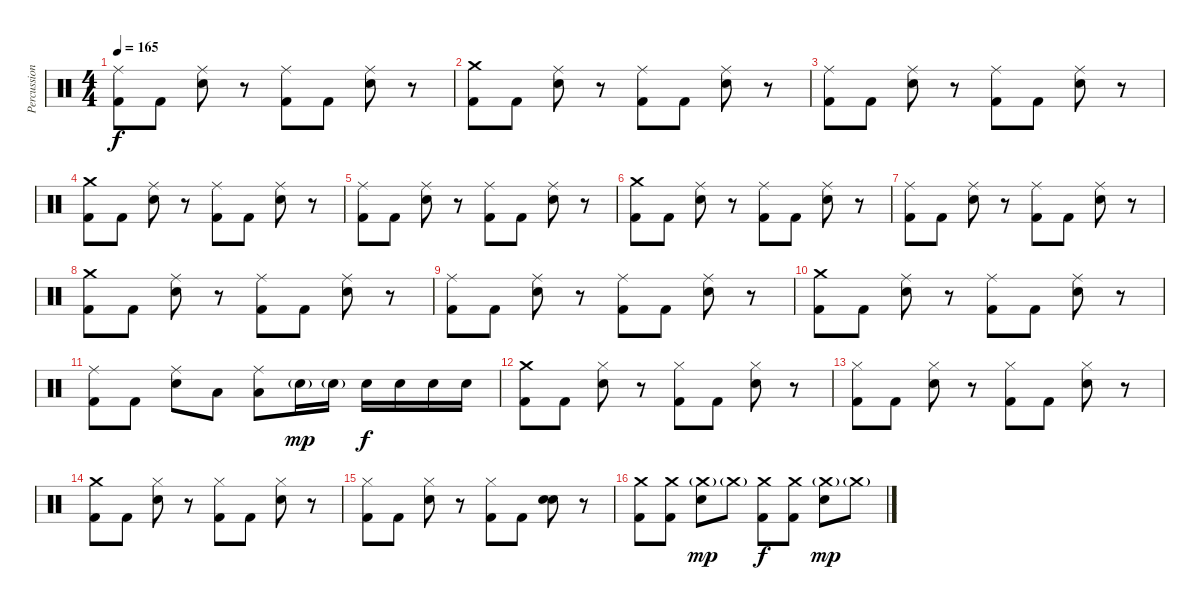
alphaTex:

\track ("Percussion" "Percussion") {instrument percussion}
\staff {score}
\articulation defaults
\ts (4 4)
\tempo 165
\clef neutral
\ks c
("Ride (middle)" "Kick (hit) 2").8{dy f} "Kick (hit) 2".8 ("Ride (middle)" "Electric Snare (hit)").8 r.8 ("Ride (middle)" "Kick (hit) 2").8 "Kick (hit) 2".8 ("Ride (middle)" "Electric Snare (hit)").8 r.8 |
("Crash medium (hit)" "Kick (hit) 2").8 "Kick (hit) 2".8 ("Ride (middle)" "Electric Snare (hit)").8 r.8 ("Ride (middle)" "Kick (hit) 2").8 "Kick (hit) 2".8 ("Ride (middle)" "Electric Snare (hit)").8 r.8 |
("Ride (middle)" "Kick (hit) 2").8 "Kick (hit) 2".8 ("Ride (middle)" "Electric Snare (hit)").8 r.8 ("Ride (middle)" "Kick (hit) 2").8 "Kick (hit) 2".8 ("Ride (middle)" "Electric Snare (hit)").8 r.8 |
("Crash medium (hit)" "Kick (hit) 2").8 "Kick (hit) 2".8 ("Ride (middle)" "Electric Snare (hit)").8 r.8 ("Ride (middle)" "Kick (hit) 2").8 "Kick (hit) 2".8 ("Ride (middle)" "Electric Snare (hit)").8 r.8 |
("Ride (middle)" "Kick (hit) 2").8 "Kick (hit) 2".8 ("Ride (middle)" "Electric Snare (hit)").8 r.8 ("Ride (middle)" "Kick (hit) 2").8 "Kick (hit) 2".8 ("Ride (middle)" "Electric Snare (hit)").8 r.8 |
("Crash medium (hit)" "Kick (hit) 2").8 "Kick (hit) 2".8 ("Ride (middle)" "Electric Snare (hit)").8 r.8 ("Ride (middle)" "Kick (hit) 2").8 "Kick (hit) 2".8 ("Ride (middle)" "Electric Snare (hit)").8 r.8 |
("Ride (middle)" "Kick (hit) 2").8 "Kick (hit) 2".8 ("Ride (middle)" "Electric Snare (hit)").8 r.8 ("Ride (middle)" "Kick (hit) 2").8 "Kick (hit) 2".8 ("Ride (middle)" "Electric Snare (hit)").8 r.8 |
("Crash medium (hit)" "Kick (hit) 2").8 "Kick (hit) 2".8 ("Ride (middle)" "Electric Snare (hit)").8 r.8 ("Ride (middle)" "Kick (hit) 2").8 "Kick (hit) 2".8 ("Ride (middle)" "Electric Snare (hit)").8 r.8 |
("Ride (middle)" "Kick (hit) 2").8 "Kick (hit) 2".8 ("Ride (middle)" "Electric Snare (hit)").8 r.8 ("Ride (middle)" "Kick (hit) 2").8 "Kick (hit) 2".8 ("Ride (middle)" "Electric Snare (hit)").8 r.8 |
("Crash medium (hit)" "Kick (hit) 2").8 "Kick (hit) 2".8 ("Ride (middle)" "Electric Snare (hit)").8 r.8 ("Ride (middle)" "Kick (hit) 2").8 "Kick (hit) 2".8 ("Ride (middle)" "Electric Snare (hit)").8 r.8 |
("Ride (middle)" "Kick (hit) 2").8 "Kick (hit) 2".8 ("Ride (middle)" "Electric Snare (hit)").8 "Low Tom (hit)".8 ("Ride (middle)" "Low Tom (hit)").8 "Electric Snare (hit)"{g}.16{dy mp} "Electric Snare (hit)"{g}.16 "Electric Snare (hit)".16{dy f} "Electric Snare (hit)".16 "Electric Snare (hit)".16 "Electric Snare (hit)".16 |
("Crash medium (hit)" "Kick (hit) 2").8 "Kick (hit) 2".8 ("Hi-Hat (closed)" "Electric Snare (hit)").8 r.8 ("Hi-Hat (closed)" "Kick (hit) 2").8 "Kick (hit) 2".8 ("Hi-Hat (closed)" "Electric Snare (hit)").8 r.8 |
("Hi-Hat (closed)" "Kick (hit) 2").8 "Kick (hit) 2".8 ("Hi-Hat (closed)" "Electric Snare (hit)").8 r.8 ("Hi-Hat (closed)" "Kick (hit) 2").8 "Kick (hit) 2".8 ("Hi-Hat (closed)" "Electric Snare (hit)").8 r.8 |
("Crash medium (hit)" "Kick (hit) 2").8 "Kick (hit) 2".8 ("Hi-Hat (closed)" "Electric Snare (hit)").8 r.8 ("Hi-Hat (closed)" "Kick (hit) 2").8 "Kick (hit) 2".8 ("Hi-Hat (closed)" "Electric Snare (hit)").8 r.8 |
("Hi-Hat (closed)" "Kick (hit) 2").8 "Kick (hit) 2".8 ("Hi-Hat (closed)" "Electric Snare (hit)").8 r.8 ("Hi-Hat (closed)" "Kick (hit) 2").8 "Kick (hit) 2".8 ("Electric Snare (hit)" "Electric Snare (hit)").8{bd 240} r.8 |
("Crash medium (hit)" "Kick (hit) 2").8 ("Crash medium (hit)" "Kick (hit) 2").8 ("Crash medium (hit)"{g} "Electric Snare (hit)").8{dy mp} "Crash medium (hit)"{g}.8 ("Crash medium (hit)" "Kick (hit) 2").8{dy f} ("Crash medium (hit)" "Kick (hit) 2").8 ("Crash medium (hit)"{g} "Electric Snare (hit)").8{dy mp} "Crash medium (hit)"{g}.8
